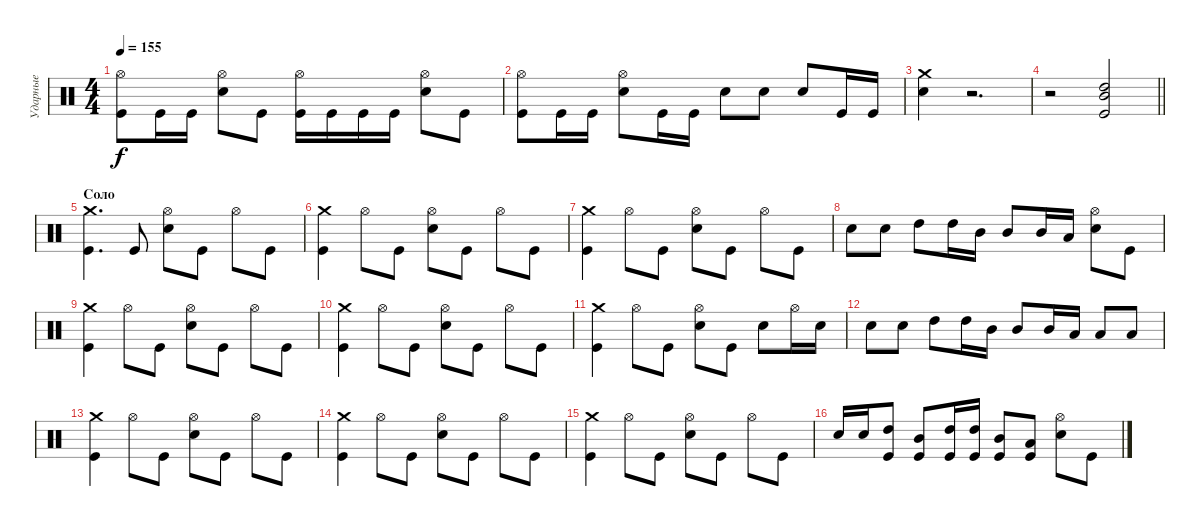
\track ("Ударные" "Ударные") {instrument percussion}
\staff {score}
\articulation defaults
\ts (4 4)
\tempo 155
\clef neutral
\ks c
("Kick (hit)" "Hi-Hat (open)").8{dy f} "Kick (hit)".16 "Kick (hit)".16 ("Snare (hit) 2" "Hi-Hat (open)").8 "Kick (hit)".8 ("Kick (hit)" "Hi-Hat (open)").16 "Kick (hit)".16 "Kick (hit)".16 "Kick (hit)".16 ("Snare (hit) 2" "Hi-Hat (open)").8 "Kick (hit)".8 |
("Kick (hit)" "Hi-Hat (open)").8 "Kick (hit)".16 "Kick (hit)".16 ("Snare (hit) 2" "Hi-Hat (open)").8 "Kick (hit)".16 "Kick (hit)".16 "Snare (hit) 2".8 "Snare (hit) 2".8 "Snare (hit) 2".8 "Kick (hit)".16 "Kick (hit)".16 |
("Snare (hit) 2" "Crash medium (hit)").4 r.2{d} |
\barLineRight lightlight
r.2 ("Kick (hit)" "High Tom (hit)" "Mid Tom (hit)").2 |
\section ("" "Соло")
("Kick (hit)" "Crash medium (hit)").4{d} "Kick (hit)".8 ("Snare (hit) 2" "Hi-Hat (open)").8 "Kick (hit)".8 "Hi-Hat (open)".8 "Kick (hit)".8 |
("Kick (hit)" "Crash medium (hit)").4 "Hi-Hat (open)".8 "Kick (hit)".8 ("Snare (hit) 2" "Hi-Hat (open)").8 "Kick (hit)".8 "Hi-Hat (open)".8 "Kick (hit)".8 |
("Kick (hit)" "Crash medium (hit)").4 "Hi-Hat (open)".8 "Kick (hit)".8 ("Snare (hit) 2" "Hi-Hat (open)").8 "Kick (hit)".8 "Hi-Hat (open)".8 "Kick (hit)".8 |
"Snare (hit) 2".8 "Snare (hit) 2".8 "High Tom (hit)".8 "High Tom (hit)".16 "Mid Tom (hit)".16 "Mid Tom (hit)".8 "Mid Tom (hit)".16 "Low Tom (hit)".16 ("Snare (hit) 2" "Hi-Hat (open)").8 "Kick (hit)".8 |
("Kick (hit)" "Crash medium (hit)").4 "Hi-Hat (open)".8 "Kick (hit)".8 ("Snare (hit) 2" "Hi-Hat (open)").8 "Kick (hit)".8 "Hi-Hat (open)".8 "Kick (hit)".8 |
("Kick (hit)" "Crash medium (hit)").4 "Hi-Hat (open)".8 "Kick (hit)".8 ("Snare (hit) 2" "Hi-Hat (open)").8 "Kick (hit)".8 "Hi-Hat (open)".8 "Kick (hit)".8 |
("Kick (hit)" "Crash medium (hit)").4 "Hi-Hat (open)".8 "Kick (hit)".8 ("Snare (hit) 2" "Hi-Hat (open)").8 "Kick (hit)".8 "Snare (hit) 2".8 "Hi-Hat (open)".16 "Snare (hit) 2".16 |
"Snare (hit) 2".8 "Snare (hit) 2".8 "High Tom (hit)".8 "High Tom (hit)".16 "Mid Tom (hit)".16 "Mid Tom (hit)".8 "Mid Tom (hit)".16 "Low Tom (hit)".16 "Low Tom (hit)".8 "Low Tom (hit)".8 |
("Kick (hit)" "Crash medium (hit)").4 "Hi-Hat (open)".8 "Kick (hit)".8 ("Snare (hit) 2" "Hi-Hat (open)").8 "Kick (hit)".8 "Hi-Hat (open)".8 "Kick (hit)".8 |
("Kick (hit)" "Crash medium (hit)").4 "Hi-Hat (open)".8 "Kick (hit)".8 ("Snare (hit) 2" "Hi-Hat (open)").8 "Kick (hit)".8 "Hi-Hat (open)".8 "Kick (hit)".8 |
("Kick (hit)" "Crash medium (hit)").4 "Hi-Hat (open)".8 "Kick (hit)".8 ("Snare (hit) 2" "Hi-Hat (open)").8 "Kick (hit)".8 "Hi-Hat (open)".8 "Kick (hit)".8 |
"Snare (hit) 2".16 "Snare (hit) 2".16 ("Kick (hit)" "High Tom (hit)").8 ("Kick (hit)" "Mid Tom (hit)").8 ("Kick (hit)" "High Tom (hit)").16 ("Kick (hit)" "High Tom (hit)").16 ("Kick (hit)" "Mid Tom (hit)").8 ("Kick (hit)" "Low Tom (hit)").8 ("Snare (hit) 2" "Hi-Hat (open)").8 "Kick (hit)".8
